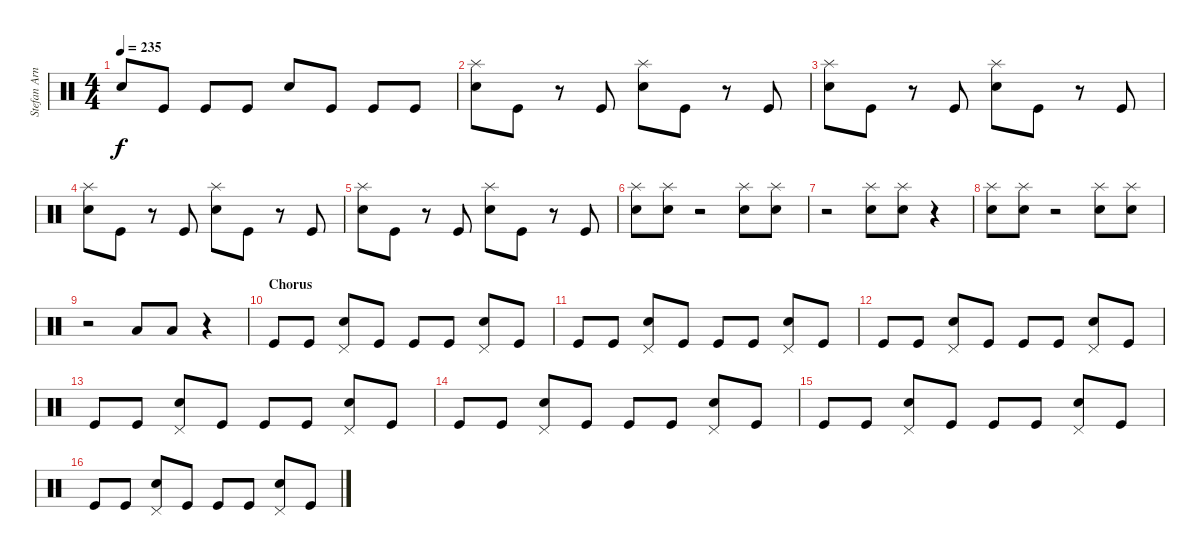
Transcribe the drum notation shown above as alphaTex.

\track ("Stefan Arnold" "Stefan Arn") {instrument percussion}
\staff {score}
\articulation defaults
\ts (4 4)
\tempo 235
\clef neutral
\ks c "Electric Snare (hit)".8{dy f} "Kick (hit)".8 "Kick (hit)".8 "Kick (hit)".8 "Electric Snare (hit)".8 "Kick (hit)".8 "Kick (hit)".8 "Kick (hit)".8
|
("Electric Snare (hit)" "Splash (hit)").8 "Kick (hit)".8 r.8 "Kick (hit)".8 ("Electric Snare (hit)" "Splash (hit)").8 "Kick (hit)".8 r.8 "Kick (hit)".8 |
("Electric Snare (hit)" "Splash (hit)").8 "Kick (hit)".8 r.8 "Kick (hit)".8 ("Electric Snare (hit)" "Splash (hit)").8 "Kick (hit)".8 r.8 "Kick (hit)".8 |
("Electric Snare (hit)" "Splash (hit)").8 "Kick (hit)".8 r.8 "Kick (hit)".8 ("Electric Snare (hit)" "Splash (hit)").8 "Kick (hit)".8 r.8 "Kick (hit)".8 |
("Electric Snare (hit)" "Splash (hit)").8 "Kick (hit)".8 r.8 "Kick (hit)".8 ("Electric Snare (hit)" "Splash (hit)").8 "Kick (hit)".8 r.8 "Kick (hit)".8 |
("Electric Snare (hit)" "Splash (hit)").8 ("Electric Snare (hit)" "Splash (hit)").8 r.2 ("Electric Snare (hit)" "Splash (hit)").8 ("Electric Snare (hit)" "Splash (hit)").8 |
r.2 ("Electric Snare (hit)" "Splash (hit)").8 ("Electric Snare (hit)" "Splash (hit)").8 r.4 |
("Electric Snare (hit)" "Splash (hit)").8 ("Electric Snare (hit)" "Splash (hit)").8 r.2 ("Electric Snare (hit)" "Splash (hit)").8 ("Electric Snare (hit)" "Splash (hit)").8 |
r.2 "Low Tom (hit)".8 "Low Tom (hit)".8 r.4 |
\section ("" "Chorus")
"Kick (hit)".8 "Kick (hit)".8 ("Electric Snare (hit)" "Pedal Hi-Hat (hit)").8 "Kick (hit)".8 "Kick (hit)".8 "Kick (hit)".8 ("Electric Snare (hit)" "Pedal Hi-Hat (hit)").8 "Kick (hit)".8 |
"Kick (hit)".8 "Kick (hit)".8 ("Electric Snare (hit)" "Pedal Hi-Hat (hit)").8 "Kick (hit)".8 "Kick (hit)".8 "Kick (hit)".8 ("Electric Snare (hit)" "Pedal Hi-Hat (hit)").8 "Kick (hit)".8 |
"Kick (hit)".8 "Kick (hit)".8 ("Electric Snare (hit)" "Pedal Hi-Hat (hit)").8 "Kick (hit)".8 "Kick (hit)".8 "Kick (hit)".8 ("Electric Snare (hit)" "Pedal Hi-Hat (hit)").8 "Kick (hit)".8 |
"Kick (hit)".8 "Kick (hit)".8 ("Electric Snare (hit)" "Pedal Hi-Hat (hit)").8 "Kick (hit)".8 "Kick (hit)".8 "Kick (hit)".8 ("Electric Snare (hit)" "Pedal Hi-Hat (hit)").8 "Kick (hit)".8 |
"Kick (hit)".8 "Kick (hit)".8 ("Electric Snare (hit)" "Pedal Hi-Hat (hit)").8 "Kick (hit)".8 "Kick (hit)".8 "Kick (hit)".8 ("Electric Snare (hit)" "Pedal Hi-Hat (hit)").8 "Kick (hit)".8 |
"Kick (hit)".8 "Kick (hit)".8 ("Electric Snare (hit)" "Pedal Hi-Hat (hit)").8 "Kick (hit)".8 "Kick (hit)".8 "Kick (hit)".8 ("Electric Snare (hit)" "Pedal Hi-Hat (hit)").8 "Kick (hit)".8 |
"Kick (hit)".8 "Kick (hit)".8 ("Electric Snare (hit)" "Pedal Hi-Hat (hit)").8 "Kick (hit)".8 "Kick (hit)".8 "Kick (hit)".8 ("Electric Snare (hit)" "Pedal Hi-Hat (hit)").8 "Kick (hit)".8
